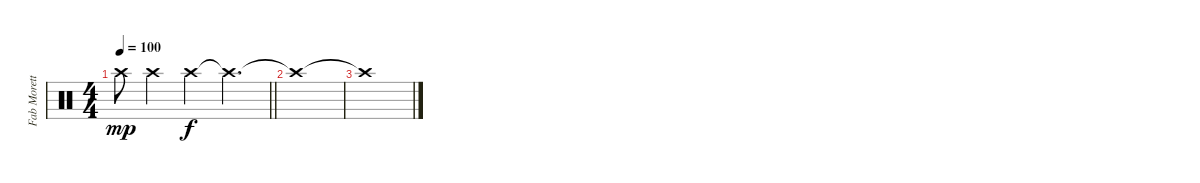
\track ("Fab Moretti - Drums" "Fab Morett") {instrument percussion}
\staff {score}
\articulation defaults
\ts (4 4)
\tempo 100
\clef neutral
\barLineRight lightlight
\ks c "Crash high (hit)".8{dy mp} "Crash high (hit)".4 "Crash high (hit)".4{dy f} "Crash high (hit)"{t}.4{d}
|
"Crash high (hit)"{t}.1 |
"Crash high (hit)"{t}.1
